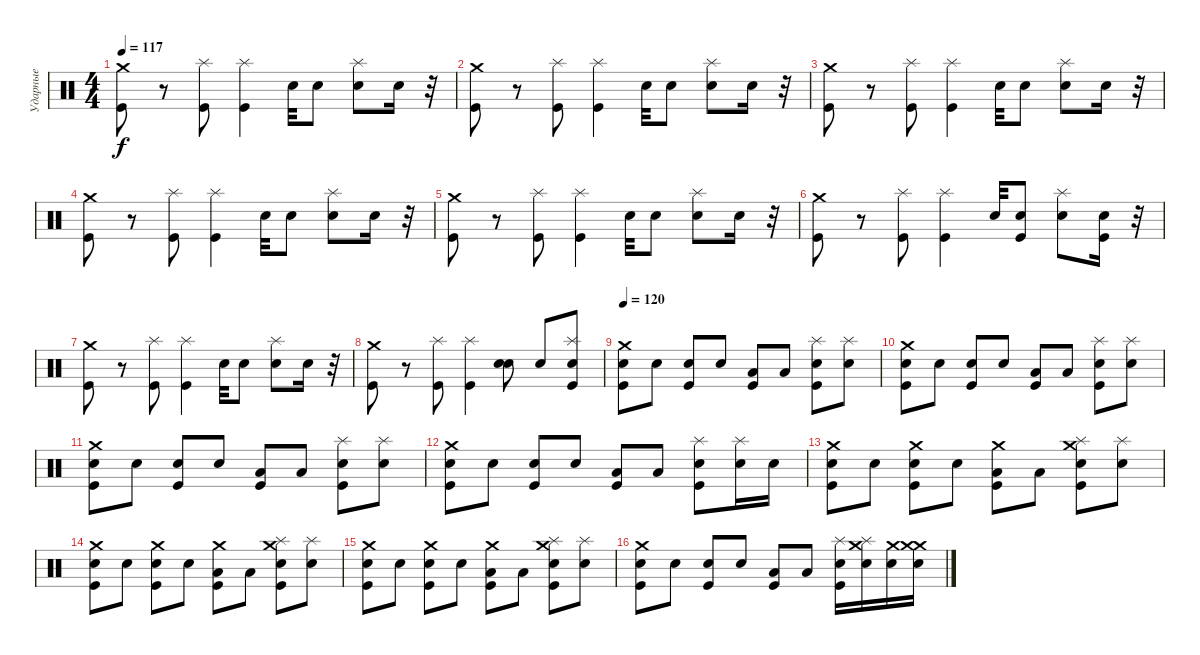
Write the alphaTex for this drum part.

\track ("Ударные" "Ударные") {instrument percussion}
\staff {score}
\articulation defaults
\ts (4 4)
\tempo 117
\clef neutral
\ks c
("Crash medium (hit)" "Kick (hit)").8{dy f} r.8 ("Splash (hit)" "Kick (hit)").8 ("Splash (hit)" "Kick (hit)").4 "Snare (hit) 2".32 "Snare (hit) 2".8 ("Splash (hit)" "Electric Snare (hit)").8 "Snare (hit) 2".16 r.32 |
("Crash medium (hit)" "Kick (hit)").8 r.8 ("Splash (hit)" "Kick (hit)").8 ("Splash (hit)" "Kick (hit)").4 "Snare (hit) 2".32 "Snare (hit) 2".8 ("Splash (hit)" "Electric Snare (hit)").8 "Snare (hit) 2".16 r.32 |
("Crash medium (hit)" "Kick (hit)").8 r.8 ("Splash (hit)" "Kick (hit)").8 ("Splash (hit)" "Kick (hit)").4 "Snare (hit) 2".32 "Snare (hit) 2".8 ("Splash (hit)" "Electric Snare (hit)").8 "Snare (hit) 2".16 r.32 |
("Crash medium (hit)" "Kick (hit)").8 r.8 ("Splash (hit)" "Kick (hit)").8 ("Splash (hit)" "Kick (hit)").4 "Snare (hit) 2".32 "Snare (hit) 2".8 ("Splash (hit)" "Electric Snare (hit)").8 "Snare (hit) 2".16 r.32 |
("Crash medium (hit)" "Kick (hit)").8 r.8 ("Splash (hit)" "Kick (hit)").8 ("Splash (hit)" "Kick (hit)").4 "Snare (hit) 2".32 "Snare (hit) 2".8 ("Splash (hit)" "Electric Snare (hit)").8 "Snare (hit) 2".16 r.32 |
("Crash medium (hit)" "Kick (hit)").8 r.8 ("Splash (hit)" "Kick (hit)").8 ("Splash (hit)" "Kick (hit)").4 "Snare (hit) 2".32 ("Snare (hit) 2" "Kick (hit)").8 ("Splash (hit)" "Electric Snare (hit)").8 ("Snare (hit) 2" "Kick (hit)").16 r.32 |
("Crash medium (hit)" "Kick (hit)").8 r.8 ("Splash (hit)" "Kick (hit)").8 ("Splash (hit)" "Kick (hit)").4 "Snare (hit) 2".32 "Snare (hit) 2".8 ("Splash (hit)" "Electric Snare (hit)").8 "Snare (hit) 2".16 r.32 |
("Crash medium (hit)" "Kick (hit)").8 r.8 ("Splash (hit)" "Kick (hit)").8 ("Splash (hit)" "Kick (hit)").4 ("Snare (hit) 2" "Snare (hit) 2").8 "Snare (hit) 2".8 ("Splash (hit)" "Snare (hit) 2" "Kick (hit)").8 |
\tempo 120
("Crash medium (hit)" "Snare (hit) 2" "Kick (hit)").8 "Snare (hit) 2".8 ("Electric Snare (hit)" "Kick (hit)").8 "Electric Snare (hit)".8 ("Low Floor Tom (hit)" "Kick (hit)").8 "Low Floor Tom (hit)".8 ("Splash (hit)" "Electric Snare (hit)" "Kick (hit)").8 ("Splash (hit)" "Electric Snare (hit)").8 |
("Crash medium (hit)" "Snare (hit) 2" "Kick (hit)").8 "Snare (hit) 2".8 ("Electric Snare (hit)" "Kick (hit)").8 "Electric Snare (hit)".8 ("Low Floor Tom (hit)" "Kick (hit)").8 "Low Floor Tom (hit)".8 ("Splash (hit)" "Electric Snare (hit)" "Kick (hit)").8 ("Splash (hit)" "Electric Snare (hit)").8 |
("Crash medium (hit)" "Snare (hit) 2" "Kick (hit)").8 "Snare (hit) 2".8 ("Electric Snare (hit)" "Kick (hit)").8 "Electric Snare (hit)".8 ("Low Floor Tom (hit)" "Kick (hit)").8 "Low Floor Tom (hit)".8 ("Splash (hit)" "Electric Snare (hit)" "Kick (hit)").8 ("Splash (hit)" "Electric Snare (hit)").8 |
("Crash medium (hit)" "Snare (hit) 2" "Kick (hit)").8 "Snare (hit) 2".8 ("Electric Snare (hit)" "Kick (hit)").8 "Electric Snare (hit)".8 ("Low Floor Tom (hit)" "Kick (hit)").8 "Low Floor Tom (hit)".8 ("Splash (hit)" "Electric Snare (hit)" "Kick (hit)").8 ("Splash (hit)" "Electric Snare (hit)").16 "Electric Snare (hit)".16 |
("Crash medium (hit)" "Snare (hit) 2" "Kick (hit)").8 "Snare (hit) 2".8 ("Crash medium (hit)" "Electric Snare (hit)" "Kick (hit)").8 "Electric Snare (hit)".8 ("Crash medium (hit)" "Low Floor Tom (hit)" "Kick (hit)").8 "Low Floor Tom (hit)".8 ("Splash (hit)" "Crash medium (hit)" "Electric Snare (hit)" "Kick (hit)").8 ("Splash (hit)" "Electric Snare (hit)").8 |
("Crash medium (hit)" "Snare (hit) 2" "Kick (hit)").8 "Snare (hit) 2".8 ("Crash medium (hit)" "Electric Snare (hit)" "Kick (hit)").8 "Electric Snare (hit)".8 ("Crash medium (hit)" "Low Floor Tom (hit)" "Kick (hit)").8 "Low Floor Tom (hit)".8 ("Splash (hit)" "Crash medium (hit)" "Electric Snare (hit)" "Kick (hit)").8 ("Splash (hit)" "Electric Snare (hit)").8 |
("Crash medium (hit)" "Snare (hit) 2" "Kick (hit)").8 "Snare (hit) 2".8 ("Crash medium (hit)" "Electric Snare (hit)" "Kick (hit)").8 "Electric Snare (hit)".8 ("Crash medium (hit)" "Low Floor Tom (hit)" "Kick (hit)").8 "Low Floor Tom (hit)".8 ("Splash (hit)" "Crash medium (hit)" "Electric Snare (hit)" "Kick (hit)").8 ("Splash (hit)" "Electric Snare (hit)").8 |
("Crash medium (hit)" "Snare (hit) 2" "Kick (hit)").8 "Snare (hit) 2".8 ("Electric Snare (hit)" "Kick (hit)").8 "Electric Snare (hit)".8 ("Low Floor Tom (hit)" "Kick (hit)").8 "Low Floor Tom (hit)".8 ("Splash (hit)" "Electric Snare (hit)" "Kick (hit)").16 ("Splash (hit)" "Crash medium (hit)" "Snare (hit) 2").16 ("Crash medium (hit)" "Snare (hit) 2").16 ("Crash medium (hit)" "Crash medium (hit)" "Snare (hit) 2").16
